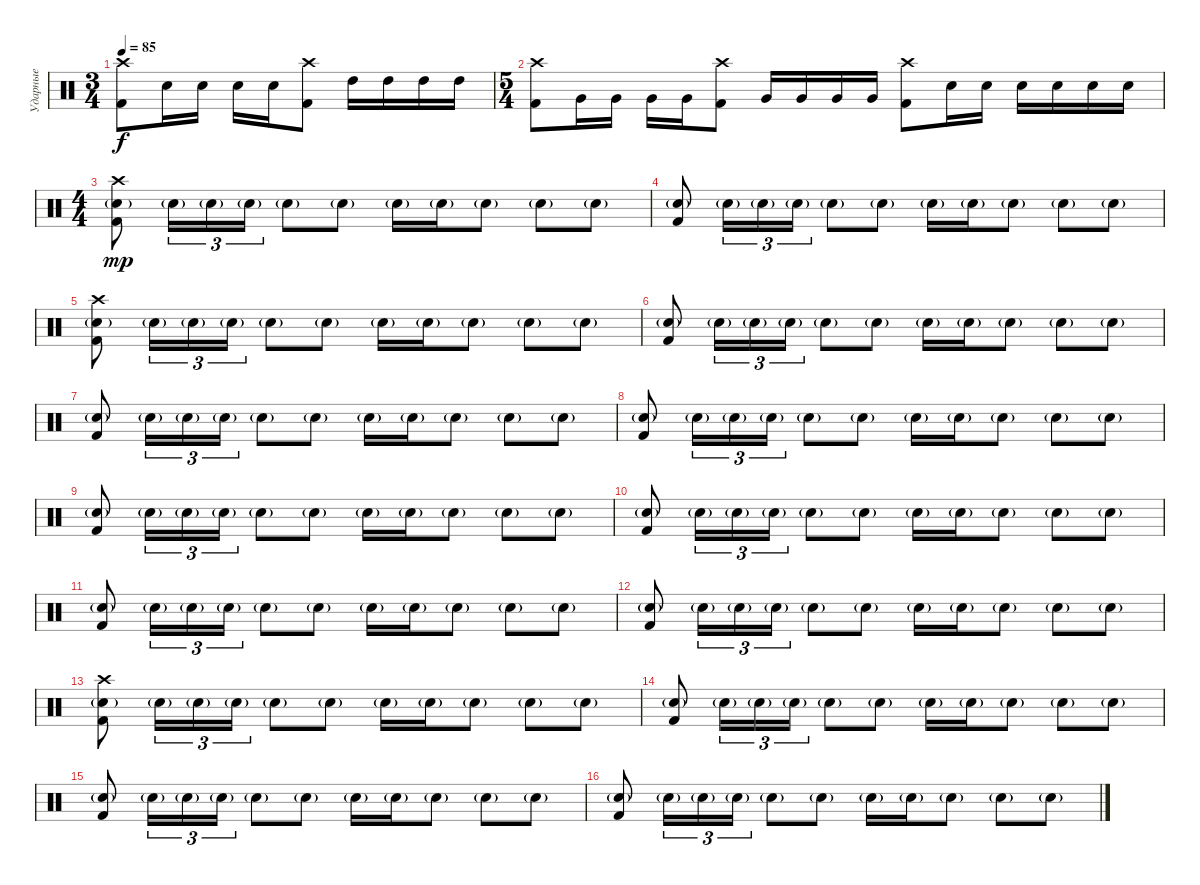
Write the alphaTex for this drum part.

\track ("Ударные" "Ударные") {instrument percussion}
\staff {score}
\articulation defaults
\ts (3 4)
\tempo 85
\clef neutral
\ks c
("Crash high (hit)" "Kick (hit) 2").8{dy f} "Electric Snare (hit)".16 "Electric Snare (hit)".16 "Electric Snare (hit)".16 "Electric Snare (hit)".16 ("Crash high (hit)" "Kick (hit) 2").8 "High Tom (hit)".16 "High Tom (hit)".16 "High Tom (hit)".16 "High Tom (hit)".16 |
\ts (5 4)
("Crash high (hit)" "Kick (hit) 2").8 "Very Low Tom (hit)".16 "Very Low Tom (hit)".16 "Very Low Tom (hit)".16 "Very Low Tom (hit)".16 ("Crash high (hit)" "Kick (hit) 2").8 "Very Low Tom (hit)".16 "Very Low Tom (hit)".16 "Very Low Tom (hit)".16 "Very Low Tom (hit)".16 ("Crash high (hit)" "Kick (hit) 2").8 "Electric Snare (hit)".16 "Electric Snare (hit)".16 "Electric Snare (hit)".16 "Electric Snare (hit)".16 "Electric Snare (hit)".16 "Electric Snare (hit)".16 |
\ts (4 4)
("Crash high (hit)" "Electric Snare (hit)"{g} "Kick (hit) 2").8{dy mp} "Electric Snare (hit)"{g}.16{tu (3 2)} "Electric Snare (hit)"{g}.16{tu (3 2)} "Electric Snare (hit)"{g}.16{tu (3 2)} "Electric Snare (hit)"{g}.8 "Electric Snare (hit)"{g}.8 "Electric Snare (hit)"{g}.16 "Electric Snare (hit)"{g}.16 "Electric Snare (hit)"{g}.8 "Electric Snare (hit)"{g}.8 "Electric Snare (hit)"{g}.8 |
("Electric Snare (hit)"{g} "Kick (hit) 2").8 "Electric Snare (hit)"{g}.16{tu (3 2)} "Electric Snare (hit)"{g}.16{tu (3 2)} "Electric Snare (hit)"{g}.16{tu (3 2)} "Electric Snare (hit)"{g}.8 "Electric Snare (hit)"{g}.8 "Electric Snare (hit)"{g}.16 "Electric Snare (hit)"{g}.16 "Electric Snare (hit)"{g}.8 "Electric Snare (hit)"{g}.8 "Electric Snare (hit)"{g}.8 |
("Crash high (hit)" "Electric Snare (hit)"{g} "Kick (hit) 2").8 "Electric Snare (hit)"{g}.16{tu (3 2)} "Electric Snare (hit)"{g}.16{tu (3 2)} "Electric Snare (hit)"{g}.16{tu (3 2)} "Electric Snare (hit)"{g}.8 "Electric Snare (hit)"{g}.8 "Electric Snare (hit)"{g}.16 "Electric Snare (hit)"{g}.16 "Electric Snare (hit)"{g}.8 "Electric Snare (hit)"{g}.8 "Electric Snare (hit)"{g}.8 |
("Electric Snare (hit)"{g} "Kick (hit) 2").8 "Electric Snare (hit)"{g}.16{tu (3 2)} "Electric Snare (hit)"{g}.16{tu (3 2)} "Electric Snare (hit)"{g}.16{tu (3 2)} "Electric Snare (hit)"{g}.8 "Electric Snare (hit)"{g}.8 "Electric Snare (hit)"{g}.16 "Electric Snare (hit)"{g}.16 "Electric Snare (hit)"{g}.8 "Electric Snare (hit)"{g}.8 "Electric Snare (hit)"{g}.8 |
("Electric Snare (hit)"{g} "Kick (hit) 2").8 "Electric Snare (hit)"{g}.16{tu (3 2)} "Electric Snare (hit)"{g}.16{tu (3 2)} "Electric Snare (hit)"{g}.16{tu (3 2)} "Electric Snare (hit)"{g}.8 "Electric Snare (hit)"{g}.8 "Electric Snare (hit)"{g}.16 "Electric Snare (hit)"{g}.16 "Electric Snare (hit)"{g}.8 "Electric Snare (hit)"{g}.8 "Electric Snare (hit)"{g}.8 |
("Electric Snare (hit)"{g} "Kick (hit) 2").8 "Electric Snare (hit)"{g}.16{tu (3 2)} "Electric Snare (hit)"{g}.16{tu (3 2)} "Electric Snare (hit)"{g}.16{tu (3 2)} "Electric Snare (hit)"{g}.8 "Electric Snare (hit)"{g}.8 "Electric Snare (hit)"{g}.16 "Electric Snare (hit)"{g}.16 "Electric Snare (hit)"{g}.8 "Electric Snare (hit)"{g}.8 "Electric Snare (hit)"{g}.8 |
("Electric Snare (hit)"{g} "Kick (hit) 2").8 "Electric Snare (hit)"{g}.16{tu (3 2)} "Electric Snare (hit)"{g}.16{tu (3 2)} "Electric Snare (hit)"{g}.16{tu (3 2)} "Electric Snare (hit)"{g}.8 "Electric Snare (hit)"{g}.8 "Electric Snare (hit)"{g}.16 "Electric Snare (hit)"{g}.16 "Electric Snare (hit)"{g}.8 "Electric Snare (hit)"{g}.8 "Electric Snare (hit)"{g}.8 |
("Electric Snare (hit)"{g} "Kick (hit) 2").8 "Electric Snare (hit)"{g}.16{tu (3 2)} "Electric Snare (hit)"{g}.16{tu (3 2)} "Electric Snare (hit)"{g}.16{tu (3 2)} "Electric Snare (hit)"{g}.8 "Electric Snare (hit)"{g}.8 "Electric Snare (hit)"{g}.16 "Electric Snare (hit)"{g}.16 "Electric Snare (hit)"{g}.8 "Electric Snare (hit)"{g}.8 "Electric Snare (hit)"{g}.8 |
("Electric Snare (hit)"{g} "Kick (hit) 2").8 "Electric Snare (hit)"{g}.16{tu (3 2)} "Electric Snare (hit)"{g}.16{tu (3 2)} "Electric Snare (hit)"{g}.16{tu (3 2)} "Electric Snare (hit)"{g}.8 "Electric Snare (hit)"{g}.8 "Electric Snare (hit)"{g}.16 "Electric Snare (hit)"{g}.16 "Electric Snare (hit)"{g}.8 "Electric Snare (hit)"{g}.8 "Electric Snare (hit)"{g}.8 |
("Electric Snare (hit)"{g} "Kick (hit) 2").8 "Electric Snare (hit)"{g}.16{tu (3 2)} "Electric Snare (hit)"{g}.16{tu (3 2)} "Electric Snare (hit)"{g}.16{tu (3 2)} "Electric Snare (hit)"{g}.8 "Electric Snare (hit)"{g}.8 "Electric Snare (hit)"{g}.16 "Electric Snare (hit)"{g}.16 "Electric Snare (hit)"{g}.8 "Electric Snare (hit)"{g}.8 "Electric Snare (hit)"{g}.8 |
("Crash high (hit)" "Electric Snare (hit)"{g} "Kick (hit) 2").8 "Electric Snare (hit)"{g}.16{tu (3 2)} "Electric Snare (hit)"{g}.16{tu (3 2)} "Electric Snare (hit)"{g}.16{tu (3 2)} "Electric Snare (hit)"{g}.8 "Electric Snare (hit)"{g}.8 "Electric Snare (hit)"{g}.16 "Electric Snare (hit)"{g}.16 "Electric Snare (hit)"{g}.8 "Electric Snare (hit)"{g}.8 "Electric Snare (hit)"{g}.8 |
("Electric Snare (hit)"{g} "Kick (hit) 2").8 "Electric Snare (hit)"{g}.16{tu (3 2)} "Electric Snare (hit)"{g}.16{tu (3 2)} "Electric Snare (hit)"{g}.16{tu (3 2)} "Electric Snare (hit)"{g}.8 "Electric Snare (hit)"{g}.8 "Electric Snare (hit)"{g}.16 "Electric Snare (hit)"{g}.16 "Electric Snare (hit)"{g}.8 "Electric Snare (hit)"{g}.8 "Electric Snare (hit)"{g}.8 |
("Electric Snare (hit)"{g} "Kick (hit) 2").8 "Electric Snare (hit)"{g}.16{tu (3 2)} "Electric Snare (hit)"{g}.16{tu (3 2)} "Electric Snare (hit)"{g}.16{tu (3 2)} "Electric Snare (hit)"{g}.8 "Electric Snare (hit)"{g}.8 "Electric Snare (hit)"{g}.16 "Electric Snare (hit)"{g}.16 "Electric Snare (hit)"{g}.8 "Electric Snare (hit)"{g}.8 "Electric Snare (hit)"{g}.8 |
("Electric Snare (hit)"{g} "Kick (hit) 2").8 "Electric Snare (hit)"{g}.16{tu (3 2)} "Electric Snare (hit)"{g}.16{tu (3 2)} "Electric Snare (hit)"{g}.16{tu (3 2)} "Electric Snare (hit)"{g}.8 "Electric Snare (hit)"{g}.8 "Electric Snare (hit)"{g}.16 "Electric Snare (hit)"{g}.16 "Electric Snare (hit)"{g}.8 "Electric Snare (hit)"{g}.8 "Electric Snare (hit)"{g}.8
